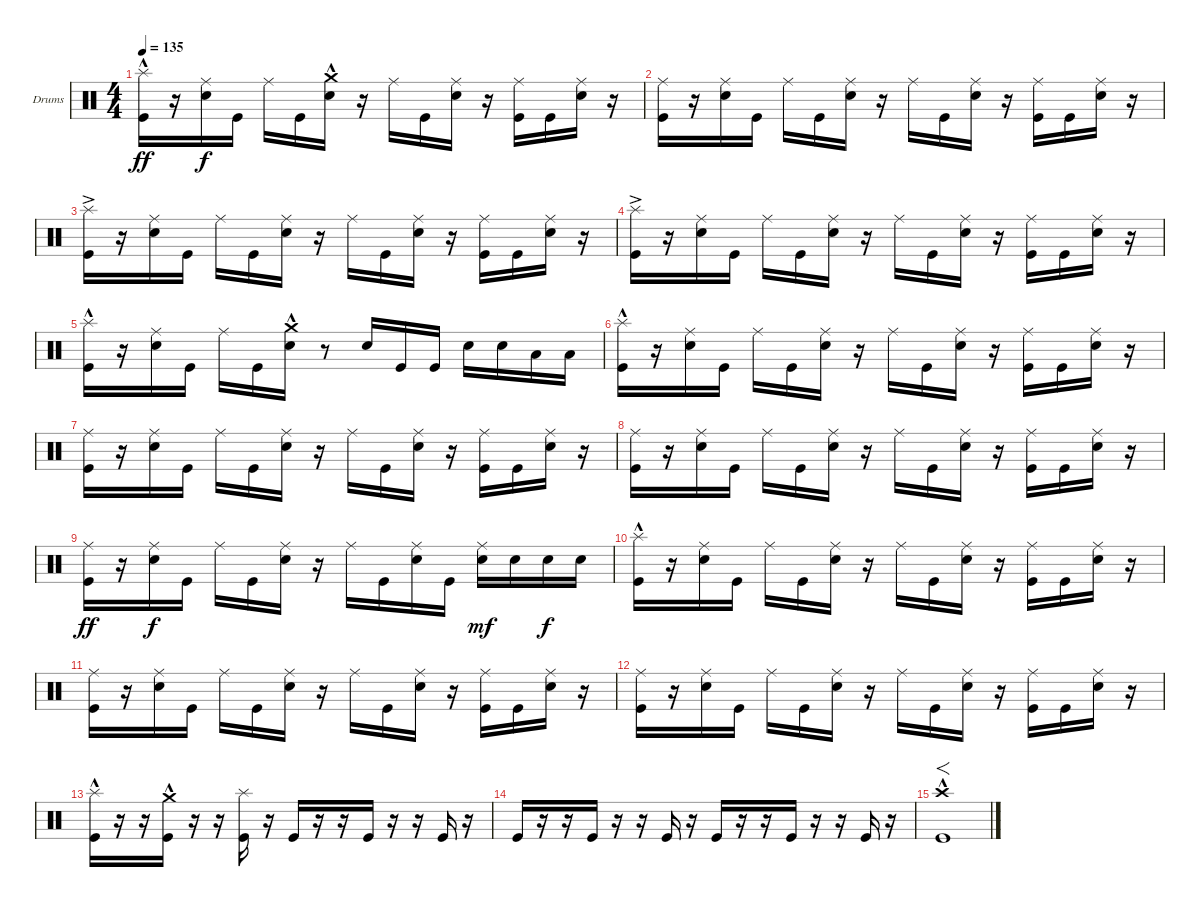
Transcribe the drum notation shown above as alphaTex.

\defaultSystemsLayout 4
\bracketExtendMode groupsimilarinstruments
\firstSystemTrackNameOrientation horizontal
\otherSystemsTrackNameOrientation horizontal
\track ("Drumkit" "Drums") {instrument percussion}
\staff {score}
\articulation defaults
\ts (4 4)
\tempo 135
\clef neutral
\ks c
("Kick (hit)" "Splash (hit)"{hac}).16{dy ff} r.16 ("Snare (hit) 2" "Ride (middle)").16{dy f} "Kick (hit)".16 "Ride (middle)".16 "Kick (hit)".16 ("Snare (hit) 2" "Crash medium (hit)"{hac}).16 r.16 "Ride (middle)".16 "Kick (hit)".16 ("Snare (hit) 2" "Ride (middle)").16 r.16 ("Kick (hit)" "Ride (middle)").16 "Kick (hit)".16 ("Snare (hit) 2" "Ride (middle)").16 r.16 |
("Kick (hit)" "Ride (middle)").16 r.16 ("Snare (hit) 2" "Ride (middle)").16 "Kick (hit)".16 "Ride (middle)".16 "Kick (hit)".16 ("Snare (hit) 2" "Ride (middle)").16 r.16 "Ride (middle)".16 "Kick (hit)".16 ("Snare (hit) 2" "Ride (middle)").16 r.16 ("Kick (hit)" "Ride (middle)").16 "Kick (hit)".16 ("Snare (hit) 2" "Ride (middle)").16 r.16 |
("Kick (hit)" "Splash (hit)"{ac}).16 r.16 ("Snare (hit) 2" "Ride (middle)").16 "Kick (hit)".16 "Ride (middle)".16 "Kick (hit)".16 ("Snare (hit) 2" "Ride (middle)").16 r.16 "Ride (middle)".16 "Kick (hit)".16 ("Snare (hit) 2" "Ride (middle)").16 r.16 ("Kick (hit)" "Ride (middle)").16 "Kick (hit)".16 ("Snare (hit) 2" "Ride (middle)").16 r.16 |
("Kick (hit)" "Splash (hit)"{ac}).16 r.16 ("Snare (hit) 2" "Ride (middle)").16 "Kick (hit)".16 "Ride (middle)".16 "Kick (hit)".16 ("Snare (hit) 2" "Ride (middle)").16 r.16 "Ride (middle)".16 "Kick (hit)".16 ("Snare (hit) 2" "Ride (middle)").16 r.16 ("Kick (hit)" "Ride (middle)").16 "Kick (hit)".16 ("Snare (hit) 2" "Ride (middle)").16 r.16 |
("Kick (hit)" "Splash (hit)"{hac}).16 r.16 ("Snare (hit) 2" "Ride (middle)").16 "Kick (hit)".16 "Ride (middle)".16 "Kick (hit)".16 ("Snare (hit) 2" "Crash medium (hit)"{hac}).16 r.8 "Snare (hit) 2".16 "Kick (hit)".16 "Kick (hit)".16 "Snare (hit) 2".16 "Snare (hit) 2".16 "Low Tom (hit)".16 "Low Tom (hit)".16 |
("Kick (hit)" "Splash (hit)"{hac}).16 r.16 ("Snare (hit) 2" "Ride (middle)").16 "Kick (hit)".16 "Ride (middle)".16 "Kick (hit)".16 ("Snare (hit) 2" "Ride (middle)").16 r.16 "Ride (middle)".16 "Kick (hit)".16 ("Snare (hit) 2" "Ride (middle)").16 r.16 ("Kick (hit)" "Ride (middle)").16 "Kick (hit)".16 ("Snare (hit) 2" "Ride (middle)").16 r.16 |
("Kick (hit)" "Ride (middle)").16 r.16 ("Snare (hit) 2" "Ride (middle)").16 "Kick (hit)".16 "Ride (middle)".16 "Kick (hit)".16 ("Snare (hit) 2" "Ride (middle)").16 r.16 "Ride (middle)".16 "Kick (hit)".16 ("Snare (hit) 2" "Ride (middle)").16 r.16 ("Kick (hit)" "Ride (middle)").16 "Kick (hit)".16 ("Snare (hit) 2" "Ride (middle)").16 r.16 |
("Kick (hit)" "Ride (middle)").16 r.16 ("Snare (hit) 2" "Ride (middle)").16 "Kick (hit)".16 "Ride (middle)".16 "Kick (hit)".16 ("Snare (hit) 2" "Ride (middle)").16 r.16 "Ride (middle)".16 "Kick (hit)".16 ("Snare (hit) 2" "Ride (middle)").16 r.16 ("Kick (hit)" "Ride (middle)").16 "Kick (hit)".16 ("Snare (hit) 2" "Ride (middle)").16 r.16 |
("Kick (hit)" "Ride (middle)").16{dy ff} r.16 ("Snare (hit) 2" "Ride (middle)").16{dy f} "Kick (hit)".16 "Ride (middle)".16 "Kick (hit)".16 ("Snare (hit) 2" "Ride (middle)").16 r.16 "Ride (middle)".16 "Kick (hit)".16 ("Snare (hit) 2" "Ride (middle)").16 "Kick (hit)".16 ("Snare (hit) 2" "Ride (middle)").16{dy mf} "Snare (hit) 2".16 "Snare (hit) 2".16{dy f} "Snare (hit) 2".16 |
("Kick (hit)" "Splash (hit)"{hac}).16 r.16 ("Snare (hit) 2" "Ride (middle)").16 "Kick (hit)".16 "Ride (middle)".16 "Kick (hit)".16 ("Snare (hit) 2" "Ride (middle)").16 r.16 "Ride (middle)".16 "Kick (hit)".16 ("Snare (hit) 2" "Ride (middle)").16 r.16 ("Kick (hit)" "Ride (middle)").16 "Kick (hit)".16 ("Snare (hit) 2" "Ride (middle)").16 r.16 |
("Kick (hit)" "Ride (middle)").16 r.16 ("Snare (hit) 2" "Ride (middle)").16 "Kick (hit)".16 "Ride (middle)".16 "Kick (hit)".16 ("Snare (hit) 2" "Ride (middle)").16 r.16 "Ride (middle)".16 "Kick (hit)".16 ("Snare (hit) 2" "Ride (middle)").16 r.16 ("Kick (hit)" "Ride (middle)").16 "Kick (hit)".16 ("Snare (hit) 2" "Ride (middle)").16 r.16 |
("Kick (hit)" "Ride (middle)").16 r.16 ("Snare (hit) 2" "Ride (middle)").16 "Kick (hit)".16 "Ride (middle)".16 "Kick (hit)".16 ("Snare (hit) 2" "Ride (middle)").16 r.16 "Ride (middle)".16 "Kick (hit)".16 ("Snare (hit) 2" "Ride (middle)").16 r.16 ("Kick (hit)" "Ride (middle)").16 "Kick (hit)".16 ("Snare (hit) 2" "Ride (middle)").16 r.16 |
("Kick (hit)" "Splash (hit)"{hac}).16 r.16 r.16 ("Kick (hit)" "Crash medium (hit)"{hac}).16 r.16 r.16 ("Kick (hit)" "Splash (hit)").16 r.16 "Kick (hit)".16 r.16 r.16 "Kick (hit)".16 r.16 r.16 "Kick (hit)".16 r.16 |
"Kick (hit)".16 r.16 r.16 "Kick (hit)".16 r.16 r.16 "Kick (hit)".16 r.16 "Kick (hit)".16 r.16 r.16 "Kick (hit)".16 r.16 r.16 "Kick (hit)".16 r.16 |
("Kick (hit)" "Crash high (hit)"{hac}).1{f}
